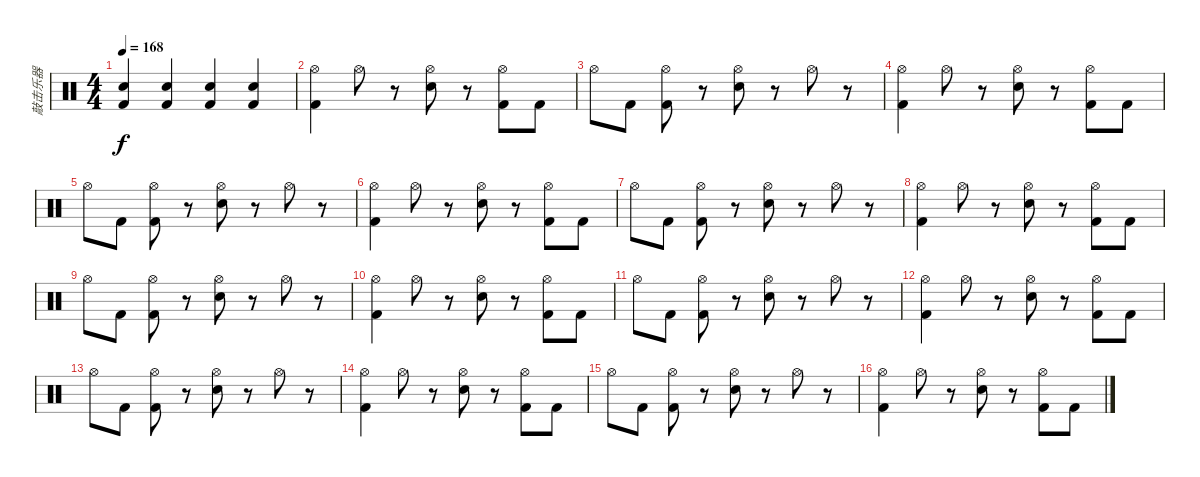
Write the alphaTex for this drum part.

\track ("敲击乐器" "敲击乐器") {instrument percussion}
\staff {score}
\articulation defaults
\ts (4 4)
\tempo 168
\clef neutral
\ks c
("Snare (hit) 2" "Kick (hit) 2").4{dy f} ("Snare (hit) 2" "Kick (hit) 2").4 ("Snare (hit) 2" "Kick (hit) 2").4 ("Snare (hit) 2" "Kick (hit) 2").4 |
("Hi-Hat (open)" "Kick (hit) 2").4 "Hi-Hat (open)".8 r.8 ("Hi-Hat (open)" "Snare (hit) 2").8 r.8 ("Hi-Hat (open)" "Kick (hit) 2").8 "Kick (hit) 2".8 |
"Hi-Hat (open)".8 "Kick (hit) 2".8 ("Hi-Hat (open)" "Kick (hit) 2").8 r.8 ("Hi-Hat (open)" "Snare (hit) 2").8 r.8 "Hi-Hat (open)".8 r.8 |
("Hi-Hat (open)" "Kick (hit) 2").4 "Hi-Hat (open)".8 r.8 ("Hi-Hat (open)" "Snare (hit) 2").8 r.8 ("Hi-Hat (open)" "Kick (hit) 2").8 "Kick (hit) 2".8 |
"Hi-Hat (open)".8 "Kick (hit) 2".8 ("Hi-Hat (open)" "Kick (hit) 2").8 r.8 ("Hi-Hat (open)" "Snare (hit) 2").8 r.8 "Hi-Hat (open)".8 r.8 |
("Hi-Hat (open)" "Kick (hit) 2").4 "Hi-Hat (open)".8 r.8 ("Hi-Hat (open)" "Snare (hit) 2").8 r.8 ("Hi-Hat (open)" "Kick (hit) 2").8 "Kick (hit) 2".8 |
"Hi-Hat (open)".8 "Kick (hit) 2".8 ("Hi-Hat (open)" "Kick (hit) 2").8 r.8 ("Hi-Hat (open)" "Snare (hit) 2").8 r.8 "Hi-Hat (open)".8 r.8 |
("Hi-Hat (open)" "Kick (hit) 2").4 "Hi-Hat (open)".8 r.8 ("Hi-Hat (open)" "Snare (hit) 2").8 r.8 ("Hi-Hat (open)" "Kick (hit) 2").8 "Kick (hit) 2".8 |
"Hi-Hat (open)".8 "Kick (hit) 2".8 ("Hi-Hat (open)" "Kick (hit) 2").8 r.8 ("Hi-Hat (open)" "Snare (hit) 2").8 r.8 "Hi-Hat (open)".8 r.8 |
("Hi-Hat (open)" "Kick (hit) 2").4 "Hi-Hat (open)".8 r.8 ("Hi-Hat (open)" "Snare (hit) 2").8 r.8 ("Hi-Hat (open)" "Kick (hit) 2").8 "Kick (hit) 2".8 |
"Hi-Hat (open)".8 "Kick (hit) 2".8 ("Hi-Hat (open)" "Kick (hit) 2").8 r.8 ("Hi-Hat (open)" "Snare (hit) 2").8 r.8 "Hi-Hat (open)".8 r.8 |
("Hi-Hat (open)" "Kick (hit) 2").4 "Hi-Hat (open)".8 r.8 ("Hi-Hat (open)" "Snare (hit) 2").8 r.8 ("Hi-Hat (open)" "Kick (hit) 2").8 "Kick (hit) 2".8 |
"Hi-Hat (open)".8 "Kick (hit) 2".8 ("Hi-Hat (open)" "Kick (hit) 2").8 r.8 ("Hi-Hat (open)" "Snare (hit) 2").8 r.8 "Hi-Hat (open)".8 r.8 |
("Hi-Hat (open)" "Kick (hit) 2").4 "Hi-Hat (open)".8 r.8 ("Hi-Hat (open)" "Snare (hit) 2").8 r.8 ("Hi-Hat (open)" "Kick (hit) 2").8 "Kick (hit) 2".8 |
"Hi-Hat (open)".8 "Kick (hit) 2".8 ("Hi-Hat (open)" "Kick (hit) 2").8 r.8 ("Hi-Hat (open)" "Snare (hit) 2").8 r.8 "Hi-Hat (open)".8 r.8 |
("Hi-Hat (open)" "Kick (hit) 2").4 "Hi-Hat (open)".8 r.8 ("Hi-Hat (open)" "Snare (hit) 2").8 r.8 ("Hi-Hat (open)" "Kick (hit) 2").8 "Kick (hit) 2".8
